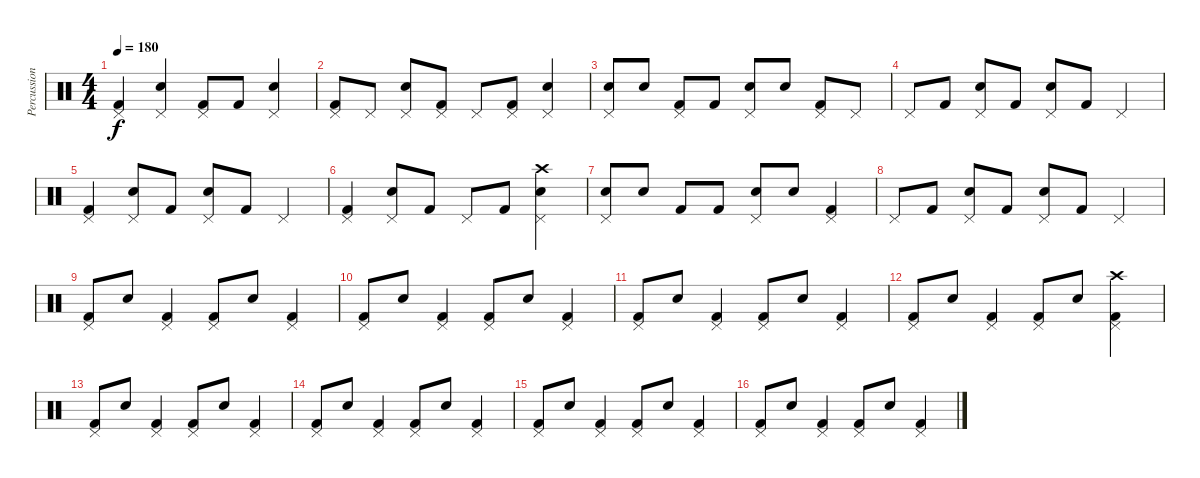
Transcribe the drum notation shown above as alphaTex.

\track ("Percussion" "Percussion") {instrument percussion}
\staff {score}
\articulation defaults
\ts (4 4)
\tempo 180
\clef neutral
\ks c
("Pedal Hi-Hat (hit)" "Kick (hit) 2").4{dy f} ("Pedal Hi-Hat (hit)" "Electric Snare (hit)").4 ("Pedal Hi-Hat (hit)" "Kick (hit) 2").8 "Kick (hit) 2".8 ("Pedal Hi-Hat (hit)" "Electric Snare (hit)").4 |
("Pedal Hi-Hat (hit)" "Kick (hit) 2").8 "Pedal Hi-Hat (hit)".8 ("Pedal Hi-Hat (hit)" "Electric Snare (hit)").8 ("Pedal Hi-Hat (hit)" "Kick (hit) 2").8 "Pedal Hi-Hat (hit)".8 ("Pedal Hi-Hat (hit)" "Kick (hit) 2").8 ("Pedal Hi-Hat (hit)" "Electric Snare (hit)").4 |
("Pedal Hi-Hat (hit)" "Electric Snare (hit)").8 "Electric Snare (hit)".8 ("Pedal Hi-Hat (hit)" "Kick (hit) 2").8 "Kick (hit) 2".8 ("Pedal Hi-Hat (hit)" "Electric Snare (hit)").8 "Electric Snare (hit)".8 ("Pedal Hi-Hat (hit)" "Kick (hit) 2").8 "Pedal Hi-Hat (hit)".8 |
"Pedal Hi-Hat (hit)".8 "Kick (hit) 2".8 ("Pedal Hi-Hat (hit)" "Electric Snare (hit)").8 "Kick (hit) 2".8 ("Pedal Hi-Hat (hit)" "Electric Snare (hit)").8 "Kick (hit) 2".8 "Pedal Hi-Hat (hit)".4 |
("Pedal Hi-Hat (hit)" "Kick (hit) 2").4 ("Pedal Hi-Hat (hit)" "Electric Snare (hit)").8 "Kick (hit) 2".8 ("Pedal Hi-Hat (hit)" "Electric Snare (hit)").8 "Kick (hit) 2".8 "Pedal Hi-Hat (hit)".4 |
("Pedal Hi-Hat (hit)" "Kick (hit) 2").4 ("Pedal Hi-Hat (hit)" "Electric Snare (hit)").8 "Kick (hit) 2".8 "Pedal Hi-Hat (hit)".8 "Kick (hit) 2".8 ("Crash high (hit)" "Pedal Hi-Hat (hit)" "Electric Snare (hit)").4 |
("Pedal Hi-Hat (hit)" "Electric Snare (hit)").8 "Electric Snare (hit)".8 "Kick (hit) 2".8 "Kick (hit) 2".8 ("Pedal Hi-Hat (hit)" "Electric Snare (hit)").8 "Electric Snare (hit)".8 ("Pedal Hi-Hat (hit)" "Kick (hit) 2").4 |
"Pedal Hi-Hat (hit)".8 "Kick (hit) 2".8 ("Pedal Hi-Hat (hit)" "Electric Snare (hit)").8 "Kick (hit) 2".8 ("Pedal Hi-Hat (hit)" "Electric Snare (hit)").8 "Kick (hit) 2".8 "Pedal Hi-Hat (hit)".4 |
("Pedal Hi-Hat (hit)" "Kick (hit) 2").8 "Electric Snare (hit)".8 ("Pedal Hi-Hat (hit)" "Kick (hit) 2").4 ("Pedal Hi-Hat (hit)" "Kick (hit) 2").8 "Electric Snare (hit)".8 ("Pedal Hi-Hat (hit)" "Kick (hit) 2").4 |
("Pedal Hi-Hat (hit)" "Kick (hit) 2").8 "Electric Snare (hit)".8 ("Pedal Hi-Hat (hit)" "Kick (hit) 2").4 ("Pedal Hi-Hat (hit)" "Kick (hit) 2").8 "Electric Snare (hit)".8 ("Pedal Hi-Hat (hit)" "Kick (hit) 2").4 |
("Pedal Hi-Hat (hit)" "Kick (hit) 2").8 "Electric Snare (hit)".8 ("Pedal Hi-Hat (hit)" "Kick (hit) 2").4 ("Pedal Hi-Hat (hit)" "Kick (hit) 2").8 "Electric Snare (hit)".8 ("Pedal Hi-Hat (hit)" "Kick (hit) 2").4 |
("Pedal Hi-Hat (hit)" "Kick (hit) 2").8 "Electric Snare (hit)".8 ("Pedal Hi-Hat (hit)" "Kick (hit) 2").4 ("Pedal Hi-Hat (hit)" "Kick (hit) 2").8 "Electric Snare (hit)".8 ("Crash high (hit)" "Pedal Hi-Hat (hit)" "Kick (hit) 2").4 |
("Pedal Hi-Hat (hit)" "Kick (hit) 2").8 "Electric Snare (hit)".8 ("Pedal Hi-Hat (hit)" "Kick (hit) 2").4 ("Pedal Hi-Hat (hit)" "Kick (hit) 2").8 "Electric Snare (hit)".8 ("Pedal Hi-Hat (hit)" "Kick (hit) 2").4 |
("Pedal Hi-Hat (hit)" "Kick (hit) 2").8 "Electric Snare (hit)".8 ("Pedal Hi-Hat (hit)" "Kick (hit) 2").4 ("Pedal Hi-Hat (hit)" "Kick (hit) 2").8 "Electric Snare (hit)".8 ("Pedal Hi-Hat (hit)" "Kick (hit) 2").4 |
("Pedal Hi-Hat (hit)" "Kick (hit) 2").8 "Electric Snare (hit)".8 ("Pedal Hi-Hat (hit)" "Kick (hit) 2").4 ("Pedal Hi-Hat (hit)" "Kick (hit) 2").8 "Electric Snare (hit)".8 ("Pedal Hi-Hat (hit)" "Kick (hit) 2").4 |
("Pedal Hi-Hat (hit)" "Kick (hit) 2").8 "Electric Snare (hit)".8 ("Pedal Hi-Hat (hit)" "Kick (hit) 2").4 ("Pedal Hi-Hat (hit)" "Kick (hit) 2").8 "Electric Snare (hit)".8 ("Pedal Hi-Hat (hit)" "Kick (hit) 2").4
